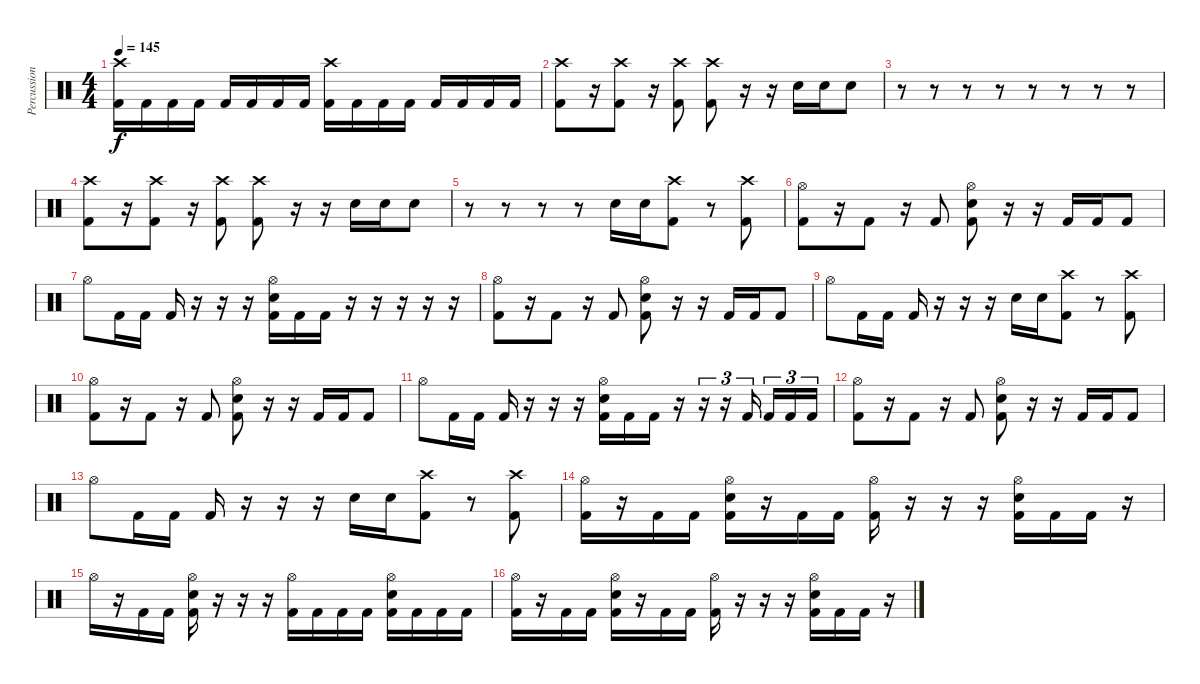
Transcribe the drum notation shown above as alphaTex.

\track ("Percussion" "Percussion") {instrument percussion}
\staff {score}
\articulation defaults
\ts (4 4)
\tempo 145
\clef neutral
\ks c
("Crash high (hit)" "Kick (hit) 2").16{dy f} "Kick (hit) 2".16 "Kick (hit) 2".16 "Kick (hit) 2".16 "Kick (hit) 2".16 "Kick (hit) 2".16 "Kick (hit) 2".16 "Kick (hit) 2".16 ("Crash high (hit)" "Kick (hit) 2").16 "Kick (hit) 2".16 "Kick (hit) 2".16 "Kick (hit) 2".16 "Kick (hit) 2".16 "Kick (hit) 2".16 "Kick (hit) 2".16 "Kick (hit) 2".16 |
("Crash high (hit)" "Kick (hit) 2").8 r.16 ("Crash high (hit)" "Kick (hit) 2").8 r.16 ("Crash high (hit)" "Kick (hit) 2").8 ("Crash high (hit)" "Kick (hit) 2").8 r.16 r.16 "Electric Snare (hit)".16 "Electric Snare (hit)".16 "Electric Snare (hit)".8 |
r.8 r.8 r.8 r.8 r.8 r.8 r.8 r.8 |
("Crash high (hit)" "Kick (hit) 2").8 r.16 ("Crash high (hit)" "Kick (hit) 2").8 r.16 ("Crash high (hit)" "Kick (hit) 2").8 ("Crash high (hit)" "Kick (hit) 2").8 r.16 r.16 "Electric Snare (hit)".16 "Electric Snare (hit)".16 "Electric Snare (hit)".8 |
r.8 r.8 r.8 r.8 "Electric Snare (hit)".16 "Electric Snare (hit)".16 ("Crash high (hit)" "Kick (hit) 2").8 r.8 ("Crash high (hit)" "Kick (hit) 2").8 |
("Hi-Hat (open)" "Kick (hit) 2").8 r.16 "Kick (hit) 2".8 r.16 "Kick (hit) 2".8 ("Hi-Hat (open)" "Electric Snare (hit)" "Kick (hit) 2").8 r.16 r.16 "Kick (hit) 2".16 "Kick (hit) 2".16 "Kick (hit) 2".8 |
"Hi-Hat (open)".8 "Kick (hit) 2".16 "Kick (hit) 2".16 "Kick (hit) 2".16 r.16 r.16 r.16 ("Hi-Hat (open)" "Electric Snare (hit)" "Kick (hit) 2").16 "Kick (hit) 2".16 "Kick (hit) 2".16 r.16 r.16 r.16 r.16 r.16 |
("Hi-Hat (open)" "Kick (hit) 2").8 r.16 "Kick (hit) 2".8 r.16 "Kick (hit) 2".8 ("Hi-Hat (open)" "Electric Snare (hit)" "Kick (hit) 2").8 r.16 r.16 "Kick (hit) 2".16 "Kick (hit) 2".16 "Kick (hit) 2".8 |
"Hi-Hat (open)".8 "Kick (hit) 2".16 "Kick (hit) 2".16 "Kick (hit) 2".16 r.16 r.16 r.16 "Electric Snare (hit)".16 "Electric Snare (hit)".16 ("Crash high (hit)" "Kick (hit) 2").8 r.8 ("Crash high (hit)" "Kick (hit) 2").8 |
("Hi-Hat (open)" "Kick (hit) 2").8 r.16 "Kick (hit) 2".8 r.16 "Kick (hit) 2".8 ("Hi-Hat (open)" "Electric Snare (hit)" "Kick (hit) 2").8 r.16 r.16 "Kick (hit) 2".16 "Kick (hit) 2".16 "Kick (hit) 2".8 |
"Hi-Hat (open)".8 "Kick (hit) 2".16 "Kick (hit) 2".16 "Kick (hit) 2".16 r.16 r.16 r.16 ("Hi-Hat (open)" "Electric Snare (hit)" "Kick (hit) 2").16 "Kick (hit) 2".16 "Kick (hit) 2".16 r.16 r.16{tu (3 2)} r.16{tu (3 2)} "Kick (hit) 2".16{tu (3 2) beam splitsecondary} "Kick (hit) 2".16{tu (3 2)} "Kick (hit) 2".16{tu (3 2)} "Kick (hit) 2".16{tu (3 2)} |
("Hi-Hat (open)" "Kick (hit) 2").8 r.16 "Kick (hit) 2".8 r.16 "Kick (hit) 2".8 ("Hi-Hat (open)" "Electric Snare (hit)" "Kick (hit) 2").8 r.16 r.16 "Kick (hit) 2".16 "Kick (hit) 2".16 "Kick (hit) 2".8 |
"Hi-Hat (open)".8 "Kick (hit) 2".16 "Kick (hit) 2".16 "Kick (hit) 2".16 r.16 r.16 r.16 "Electric Snare (hit)".16 "Electric Snare (hit)".16 ("Crash high (hit)" "Kick (hit) 2").8 r.8 ("Crash high (hit)" "Kick (hit) 2").8 |
("Hi-Hat (open)" "Kick (hit) 2").16 r.16 "Kick (hit) 2".16 "Kick (hit) 2".16 ("Hi-Hat (open)" "Electric Snare (hit)" "Kick (hit) 2").16 r.16 "Kick (hit) 2".16 "Kick (hit) 2".16 ("Hi-Hat (open)" "Kick (hit) 2").16 r.16 r.16 r.16 ("Hi-Hat (open)" "Electric Snare (hit)" "Kick (hit) 2").16 "Kick (hit) 2".16 "Kick (hit) 2".16 r.16 |
"Hi-Hat (open)".16 r.16 "Kick (hit) 2".16 "Kick (hit) 2".16 ("Hi-Hat (open)" "Electric Snare (hit)" "Kick (hit) 2").16 r.16 r.16 r.16 ("Hi-Hat (open)" "Kick (hit) 2").16 "Kick (hit) 2".16 "Kick (hit) 2".16 "Kick (hit) 2".16 ("Hi-Hat (open)" "Electric Snare (hit)" "Kick (hit) 2").16 "Kick (hit) 2".16 "Kick (hit) 2".16 "Kick (hit) 2".16 |
("Hi-Hat (open)" "Kick (hit) 2").16 r.16 "Kick (hit) 2".16 "Kick (hit) 2".16 ("Hi-Hat (open)" "Electric Snare (hit)" "Kick (hit) 2").16 r.16 "Kick (hit) 2".16 "Kick (hit) 2".16 ("Hi-Hat (open)" "Kick (hit) 2").16 r.16 r.16 r.16 ("Hi-Hat (open)" "Electric Snare (hit)" "Kick (hit) 2").16 "Kick (hit) 2".16 "Kick (hit) 2".16 r.16
